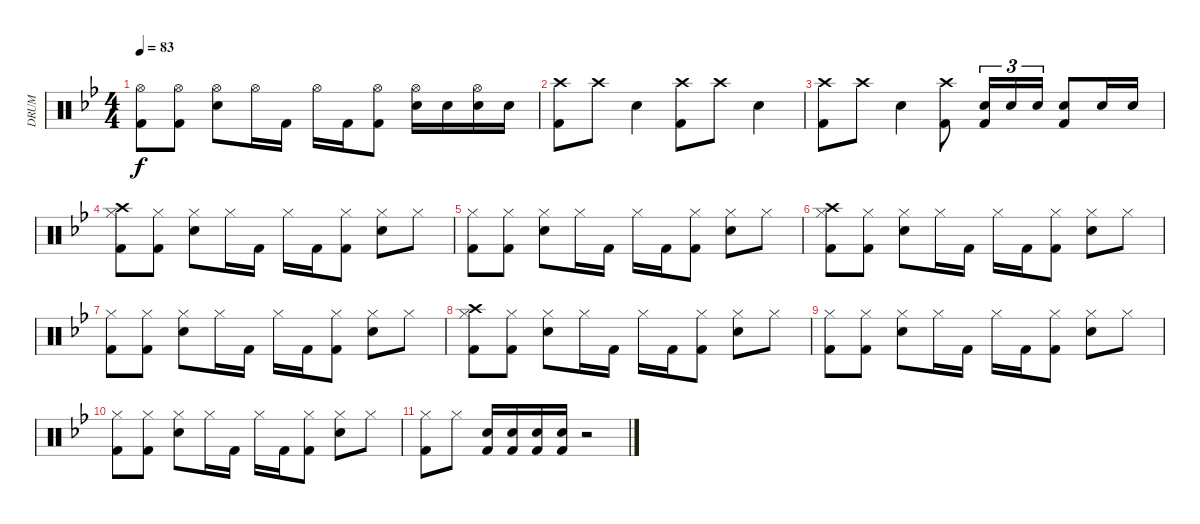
\track ("DRUM" "DRUM") {instrument percussion}
\staff {score}
\articulation defaults
\ts (4 4)
\tempo 83
\clef neutral
\ks gminor
("Hi-Hat (open)" "Kick (hit) 2").8{dy f} ("Hi-Hat (open)" "Kick (hit) 2").8 ("Hi-Hat (open)" "Electric Snare (hit)").8 "Hi-Hat (open)".16 "Kick (hit) 2".16 "Hi-Hat (open)".16 "Kick (hit) 2".16 ("Hi-Hat (open)" "Kick (hit) 2").8 ("Hi-Hat (open)" "Electric Snare (hit)").16 "Electric Snare (hit)".16 ("Hi-Hat (open)" "Electric Snare (hit)").16 "Electric Snare (hit)".16 |
("Crash high (hit)" "Kick (hit) 2").8 "Crash high (hit)".8 "Electric Snare (hit)".4 ("Crash high (hit)" "Kick (hit) 2").8 "Crash high (hit)".8 "Electric Snare (hit)".4 |
("Crash high (hit)" "Kick (hit) 2").8 "Crash high (hit)".8 "Electric Snare (hit)".4 ("Crash high (hit)" "Kick (hit) 2").8 ("Electric Snare (hit)" "Kick (hit) 2").16{tu (3 2)} "Electric Snare (hit)".16{tu (3 2)} "Electric Snare (hit)".16{tu (3 2)} ("Electric Snare (hit)" "Kick (hit) 2").8 "Electric Snare (hit)".16 "Electric Snare (hit)".16 |
("Hi-Hat (closed)" "Crash high (hit)" "Kick (hit) 2").8 ("Hi-Hat (closed)" "Kick (hit) 2").8 ("Hi-Hat (closed)" "Electric Snare (hit)").8 "Hi-Hat (closed)".16 "Kick (hit) 2".16 "Hi-Hat (closed)".16 "Kick (hit) 2".16 ("Hi-Hat (closed)" "Kick (hit) 2").8 ("Hi-Hat (closed)" "Electric Snare (hit)").8 "Hi-Hat (closed)".8 |
("Hi-Hat (closed)" "Kick (hit) 2").8 ("Hi-Hat (closed)" "Kick (hit) 2").8 ("Hi-Hat (closed)" "Electric Snare (hit)").8 "Hi-Hat (closed)".16 "Kick (hit) 2".16 "Hi-Hat (closed)".16 "Kick (hit) 2".16 ("Hi-Hat (closed)" "Kick (hit) 2").8 ("Hi-Hat (closed)" "Electric Snare (hit)").8 "Hi-Hat (closed)".8 |
("Hi-Hat (closed)" "Crash high (hit)" "Kick (hit) 2").8 ("Hi-Hat (closed)" "Kick (hit) 2").8 ("Hi-Hat (closed)" "Electric Snare (hit)").8 "Hi-Hat (closed)".16 "Kick (hit) 2".16 "Hi-Hat (closed)".16 "Kick (hit) 2".16 ("Hi-Hat (closed)" "Kick (hit) 2").8 ("Hi-Hat (closed)" "Electric Snare (hit)").8 "Hi-Hat (closed)".8 |
("Hi-Hat (closed)" "Kick (hit) 2").8 ("Hi-Hat (closed)" "Kick (hit) 2").8 ("Hi-Hat (closed)" "Electric Snare (hit)").8 "Hi-Hat (closed)".16 "Kick (hit) 2".16 "Hi-Hat (closed)".16 "Kick (hit) 2".16 ("Hi-Hat (closed)" "Kick (hit) 2").8 ("Hi-Hat (closed)" "Electric Snare (hit)").8 "Hi-Hat (closed)".8 |
("Hi-Hat (closed)" "Crash high (hit)" "Kick (hit) 2").8 ("Hi-Hat (closed)" "Kick (hit) 2").8 ("Hi-Hat (closed)" "Electric Snare (hit)").8 "Hi-Hat (closed)".16 "Kick (hit) 2".16 "Hi-Hat (closed)".16 "Kick (hit) 2".16 ("Hi-Hat (closed)" "Kick (hit) 2").8 ("Hi-Hat (closed)" "Electric Snare (hit)").8 "Hi-Hat (closed)".8 |
("Hi-Hat (closed)" "Kick (hit) 2").8 ("Hi-Hat (closed)" "Kick (hit) 2").8 ("Hi-Hat (closed)" "Electric Snare (hit)").8 "Hi-Hat (closed)".16 "Kick (hit) 2".16 "Hi-Hat (closed)".16 "Kick (hit) 2".16 ("Hi-Hat (closed)" "Kick (hit) 2").8 ("Hi-Hat (closed)" "Electric Snare (hit)").8 "Hi-Hat (closed)".8 |
("Hi-Hat (closed)" "Kick (hit) 2").8 ("Hi-Hat (closed)" "Kick (hit) 2").8 ("Hi-Hat (closed)" "Electric Snare (hit)").8 "Hi-Hat (closed)".16 "Kick (hit) 2".16 "Hi-Hat (closed)".16 "Kick (hit) 2".16 ("Hi-Hat (closed)" "Kick (hit) 2").8 ("Hi-Hat (closed)" "Electric Snare (hit)").8 "Hi-Hat (closed)".8 |
("Hi-Hat (closed)" "Kick (hit) 2").8 "Hi-Hat (closed)".8 ("Electric Snare (hit)" "Kick (hit) 2").16 ("Electric Snare (hit)" "Kick (hit) 2").16 ("Electric Snare (hit)" "Kick (hit) 2").16 ("Electric Snare (hit)" "Kick (hit) 2").16 r.2
